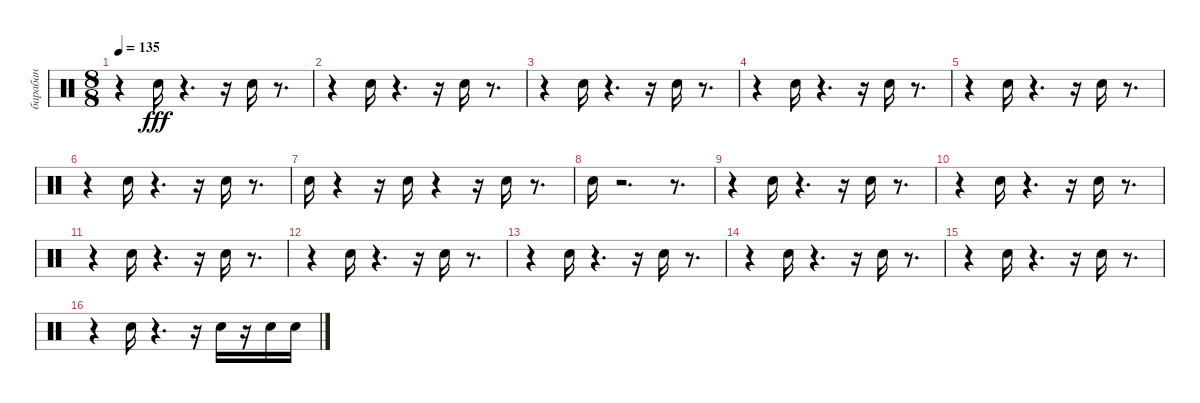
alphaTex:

\track ("барабан" "барабан") {instrument percussion}
\staff {score}
\articulation defaults
\ts (8 8)
\tempo 135
\clef neutral
\ks c
r.4{dy fff} "Snare (hit) 2".16 r.4{d} r.16 "Snare (hit) 2".16 r.8{d} |
r.4 "Snare (hit) 2".16 r.4{d} r.16 "Snare (hit) 2".16 r.8{d} |
r.4 "Snare (hit) 2".16 r.4{d} r.16 "Snare (hit) 2".16 r.8{d} |
r.4 "Snare (hit) 2".16 r.4{d} r.16 "Snare (hit) 2".16 r.8{d} |
r.4 "Snare (hit) 2".16 r.4{d} r.16 "Snare (hit) 2".16 r.8{d} |
r.4 "Snare (hit) 2".16 r.4{d} r.16 "Snare (hit) 2".16 r.8{d} |
"Snare (hit) 2".16 r.4 r.16 "Snare (hit) 2".16 r.4 r.16 "Snare (hit) 2".16 r.8{d} |
"Snare (hit) 2".16 r.2{d} r.8{d} |
r.4 "Snare (hit) 2".16 r.4{d} r.16 "Snare (hit) 2".16 r.8{d} |
r.4 "Snare (hit) 2".16 r.4{d} r.16 "Snare (hit) 2".16 r.8{d} |
r.4 "Snare (hit) 2".16 r.4{d} r.16 "Snare (hit) 2".16 r.8{d} |
r.4 "Snare (hit) 2".16 r.4{d} r.16 "Snare (hit) 2".16 r.8{d} |
r.4 "Snare (hit) 2".16 r.4{d} r.16 "Snare (hit) 2".16 r.8{d} |
r.4 "Snare (hit) 2".16 r.4{d} r.16 "Snare (hit) 2".16 r.8{d} |
r.4 "Snare (hit) 2".16 r.4{d} r.16 "Snare (hit) 2".16 r.8{d} |
r.4 "Snare (hit) 2".16 r.4{d} r.16 "Snare (hit) 2".16 r.16 "Snare (hit) 2".16 "Snare (hit) 2".16
